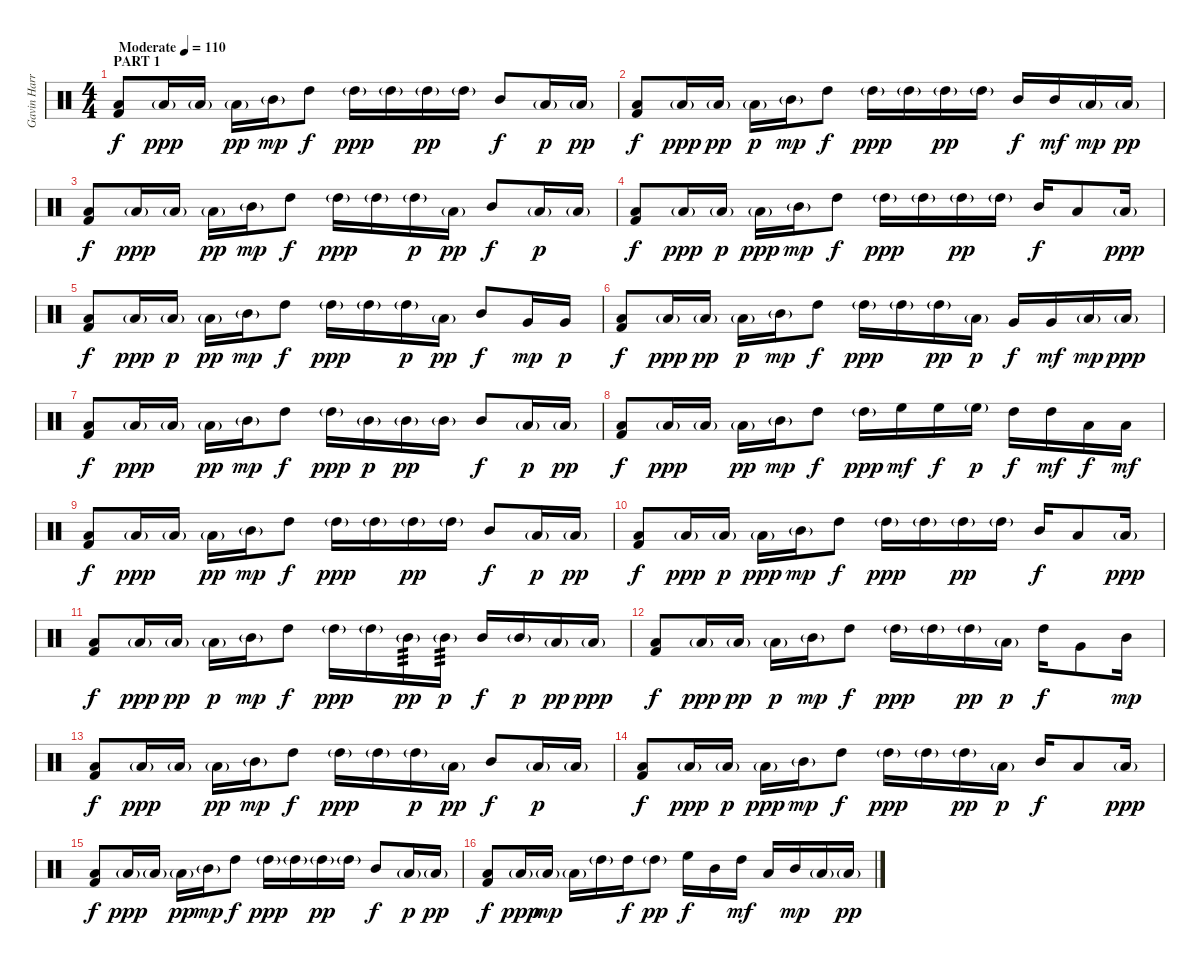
\track ("Gavin Harrison - Drums" "Gavin Harr") {instrument percussion}
\staff {score}
\articulation defaults
\ts (4 4)
\section ("" "PART 1")
\tempo (110 "Moderate")
\clef neutral
\ks c
("Low Floor Tom (hit)" "Kick (hit) 2").8{dy f} "Low Floor Tom (hit)"{g}.16{dy ppp} "Low Tom (hit)"{g}.16 "Low Tom (hit)"{g}.16{dy pp} "Mid Tom (hit)"{g}.16{dy mp} "High Tom (hit)".8{dy f} "High Tom (hit)"{g}.16{dy ppp} "High Tom (hit)"{g}.16 "High Tom (hit)"{g}.16{dy pp} "High Tom (hit)"{g}.16 "Mid Tom (hit)".8{dy f} "Low Tom (hit)"{g}.16{dy p} "Low Tom (hit)"{g}.16{dy pp} |
("Low Floor Tom (hit)" "Kick (hit) 2").8{dy f} "Low Floor Tom (hit)"{g}.16{dy ppp} "Low Tom (hit)"{g}.16{dy pp} "Low Tom (hit)"{g}.16{dy p} "Mid Tom (hit)"{g}.16{dy mp} "High Tom (hit)".8{dy f} "High Tom (hit)"{g}.16{dy ppp} "High Tom (hit)"{g}.16 "High Tom (hit)"{g}.16{dy pp} "High Tom (hit)"{g}.16 "Mid Tom (hit)".16{dy f} "Mid Tom (hit)".16{dy mf} "Low Tom (hit)"{g}.16{dy mp} "Low Tom (hit)"{g}.16{dy pp} |
("Low Floor Tom (hit)" "Kick (hit) 2").8{dy f} "Low Floor Tom (hit)"{g}.16{dy ppp} "Low Tom (hit)"{g}.16 "Low Tom (hit)"{g}.16{dy pp} "Mid Tom (hit)"{g}.16{dy mp} "High Tom (hit)".8{dy f} "High Tom (hit)"{g}.16{dy ppp} "High Tom (hit)"{g}.16 "High Tom (hit)"{g}.16{dy p} "Low Tom (hit)"{g}.16{dy pp} "Mid Tom (hit)".8{dy f} "Low Tom (hit)"{g}.16{dy p} "Low Tom (hit)"{g}.16 |
("Low Floor Tom (hit)" "Kick (hit) 2").8{dy f} "Low Floor Tom (hit)"{g}.16{dy ppp} "Low Tom (hit)"{g}.16{dy p} "Low Tom (hit)"{g}.16{dy ppp} "Mid Tom (hit)"{g}.16{dy mp} "High Tom (hit)".8{dy f} "High Tom (hit)"{g}.16{dy ppp} "High Tom (hit)"{g}.16 "High Tom (hit)"{g}.16{dy pp} "High Tom (hit)"{g}.16 "Mid Tom (hit)".16{dy f} "Low Floor Tom (hit)".8 "Low Floor Tom (hit)"{g}.16{dy ppp} |
("Low Floor Tom (hit)" "Kick (hit) 2").8{dy f} "Low Floor Tom (hit)"{g}.16{dy ppp} "Low Tom (hit)"{g}.16{dy p} "Low Tom (hit)"{g}.16{dy pp} "Mid Tom (hit)"{g}.16{dy mp} "High Tom (hit)".8{dy f} "High Tom (hit)"{g}.16{dy ppp} "High Tom (hit)"{g}.16 "High Tom (hit)"{g}.16{dy p} "Low Tom (hit)"{g}.16{dy pp} "Mid Tom (hit)".8{dy f} "Very Low Tom (hit)".16{dy mp} "Very Low Tom (hit)".16{dy p} |
("Low Floor Tom (hit)" "Kick (hit) 2").8{dy f} "Low Floor Tom (hit)"{g}.16{dy ppp} "Low Tom (hit)"{g}.16{dy pp} "Low Tom (hit)"{g}.16{dy p} "Mid Tom (hit)"{g}.16{dy mp} "High Tom (hit)".8{dy f} "High Tom (hit)"{g}.16{dy ppp} "High Tom (hit)"{g}.16 "High Tom (hit)"{g}.16{dy pp} "Low Tom (hit)"{g}.16{dy p} "Very Low Tom (hit)".16{dy f} "Very Low Tom (hit)".16{dy mf} "Low Floor Tom (hit)"{g}.16{dy mp} "Low Floor Tom (hit)"{g}.16{dy ppp} |
("Low Floor Tom (hit)" "Kick (hit) 2").8{dy f} "Low Floor Tom (hit)"{g}.16{dy ppp} "Low Tom (hit)"{g}.16 "Low Tom (hit)"{g}.16{dy pp} "Mid Tom (hit)"{g}.16{dy mp} "High Tom (hit)".8{dy f} "High Tom (hit)"{g}.16{dy ppp} "Mid Tom (hit)"{g}.16{dy p} "Mid Tom (hit)"{g}.16{dy pp} "Mid Tom (hit)"{g}.16 "Mid Tom (hit)".8{dy f} "Low Tom (hit)"{g}.16{dy p} "Low Tom (hit)"{g}.16{dy pp} |
("Low Floor Tom (hit)" "Kick (hit) 2").8{dy f} "Low Floor Tom (hit)"{g}.16{dy ppp} "Low Tom (hit)"{g}.16 "Low Tom (hit)"{g}.16{dy pp} "Mid Tom (hit)"{g}.16{dy mp} "High Tom (hit)".8{dy f} "High Tom (hit)"{g}.16{dy ppp} "High Floor Tom (hit)".16{dy mf} "High Floor Tom (hit)".16{dy f} "High Floor Tom (hit)"{g}.16{dy p} "High Tom (hit)".16{dy f} "High Tom (hit)".16{dy mf} "Low Tom (hit)".16{dy f} "Low Tom (hit)".16{dy mf} |
("Low Floor Tom (hit)" "Kick (hit) 2").8{dy f} "Low Floor Tom (hit)"{g}.16{dy ppp} "Low Tom (hit)"{g}.16 "Low Tom (hit)"{g}.16{dy pp} "Mid Tom (hit)"{g}.16{dy mp} "High Tom (hit)".8{dy f} "High Tom (hit)"{g}.16{dy ppp} "High Tom (hit)"{g}.16 "High Tom (hit)"{g}.16{dy pp} "High Tom (hit)"{g}.16 "Mid Tom (hit)".8{dy f} "Low Tom (hit)"{g}.16{dy p} "Low Tom (hit)"{g}.16{dy pp} |
("Low Floor Tom (hit)" "Kick (hit) 2").8{dy f} "Low Floor Tom (hit)"{g}.16{dy ppp} "Low Tom (hit)"{g}.16{dy p} "Low Tom (hit)"{g}.16{dy ppp} "Mid Tom (hit)"{g}.16{dy mp} "High Tom (hit)".8{dy f} "High Tom (hit)"{g}.16{dy ppp} "High Tom (hit)"{g}.16 "High Tom (hit)"{g}.16{dy pp} "High Tom (hit)"{g}.16 "Mid Tom (hit)".16{dy f} "Low Tom (hit)".8 "Low Tom (hit)"{g}.16{dy ppp} |
("Low Floor Tom (hit)" "Kick (hit) 2").8{dy f} "Low Floor Tom (hit)"{g}.16{dy ppp} "Low Tom (hit)"{g}.16{dy pp} "Low Tom (hit)"{g}.16{dy p} "Mid Tom (hit)"{g}.16{dy mp} "High Tom (hit)".8{dy f} "High Tom (hit)"{g}.16{dy ppp} "High Tom (hit)"{g}.16 "Mid Tom (hit)"{g}.16{tp 3 dy pp} "Mid Tom (hit)"{g}.16{tp 3 dy p} "Mid Tom (hit)".16{dy f} "Mid Tom (hit)"{g}.16{dy p} "Low Tom (hit)"{g}.16{dy pp} "Low Tom (hit)"{g}.16{dy ppp} |
("Low Floor Tom (hit)" "Kick (hit) 2").8{dy f} "Low Floor Tom (hit)"{g}.16{dy ppp} "Low Tom (hit)"{g}.16{dy pp} "Low Tom (hit)"{g}.16{dy p} "Mid Tom (hit)"{g}.16{dy mp} "High Tom (hit)".8{dy f} "High Tom (hit)"{g}.16{dy ppp} "High Tom (hit)"{g}.16 "High Tom (hit)"{g}.16{dy pp} "Low Tom (hit)"{g}.16{dy p} "High Tom (hit)".16{dy f} "Very Low Tom (hit)".8 "Mid Tom (hit)".16{dy mp} |
("Low Floor Tom (hit)" "Kick (hit) 2").8{dy f} "Low Floor Tom (hit)"{g}.16{dy ppp} "Low Tom (hit)"{g}.16 "Low Tom (hit)"{g}.16{dy pp} "Mid Tom (hit)"{g}.16{dy mp} "High Tom (hit)".8{dy f} "High Tom (hit)"{g}.16{dy ppp} "High Tom (hit)"{g}.16 "High Tom (hit)"{g}.16{dy p} "Low Tom (hit)"{g}.16{dy pp} "Mid Tom (hit)".8{dy f} "Low Tom (hit)"{g}.16{dy p} "Low Tom (hit)"{g}.16 |
("Low Floor Tom (hit)" "Kick (hit) 2").8{bd 120 dy f} "Low Floor Tom (hit)"{g}.16{dy ppp} "Low Tom (hit)"{g}.16{dy p} "Low Tom (hit)"{g}.16{dy ppp} "Mid Tom (hit)"{g}.16{dy mp} "High Tom (hit)".8{dy f} "High Tom (hit)"{g}.16{dy ppp} "High Tom (hit)"{g}.16 "High Tom (hit)"{g}.16{dy pp} "Low Tom (hit)"{g}.16{dy p} "Mid Tom (hit)".16{dy f} "Low Floor Tom (hit)".8 "Low Floor Tom (hit)"{g}.16{dy ppp} |
("Low Floor Tom (hit)" "Kick (hit) 2").8{dy f} "Low Floor Tom (hit)"{g}.16{dy ppp} "Low Tom (hit)"{g}.16 "Low Tom (hit)"{g}.16{dy pp} "Mid Tom (hit)"{g}.16{dy mp} "High Tom (hit)".8{dy f} "High Tom (hit)"{g}.16{dy ppp} "High Tom (hit)"{g}.16 "High Tom (hit)"{g}.16{dy pp} "High Tom (hit)"{g}.16 "Mid Tom (hit)".8{dy f} "Low Tom (hit)"{g}.16{dy p} "Low Tom (hit)"{g}.16{dy pp} |
("Low Floor Tom (hit)" "Kick (hit) 2").8{dy f} "Low Floor Tom (hit)"{g}.16{dy ppp} "Low Tom (hit)"{g}.16{dy mp} "Low Tom (hit)"{g}.16 "High Tom (hit)"{g}.16 "High Tom (hit)".16{dy f} "High Tom (hit)"{g}.8{dy pp} "High Floor Tom (hit)".16{dy f} "Mid Tom (hit)".16 "High Tom (hit)".16{dy mf} "Low Tom (hit)".16 "Mid Tom (hit)".16{dy mp} "Low Floor Tom (hit)"{g}.16 "Low Floor Tom (hit)"{g}.16{dy pp}
